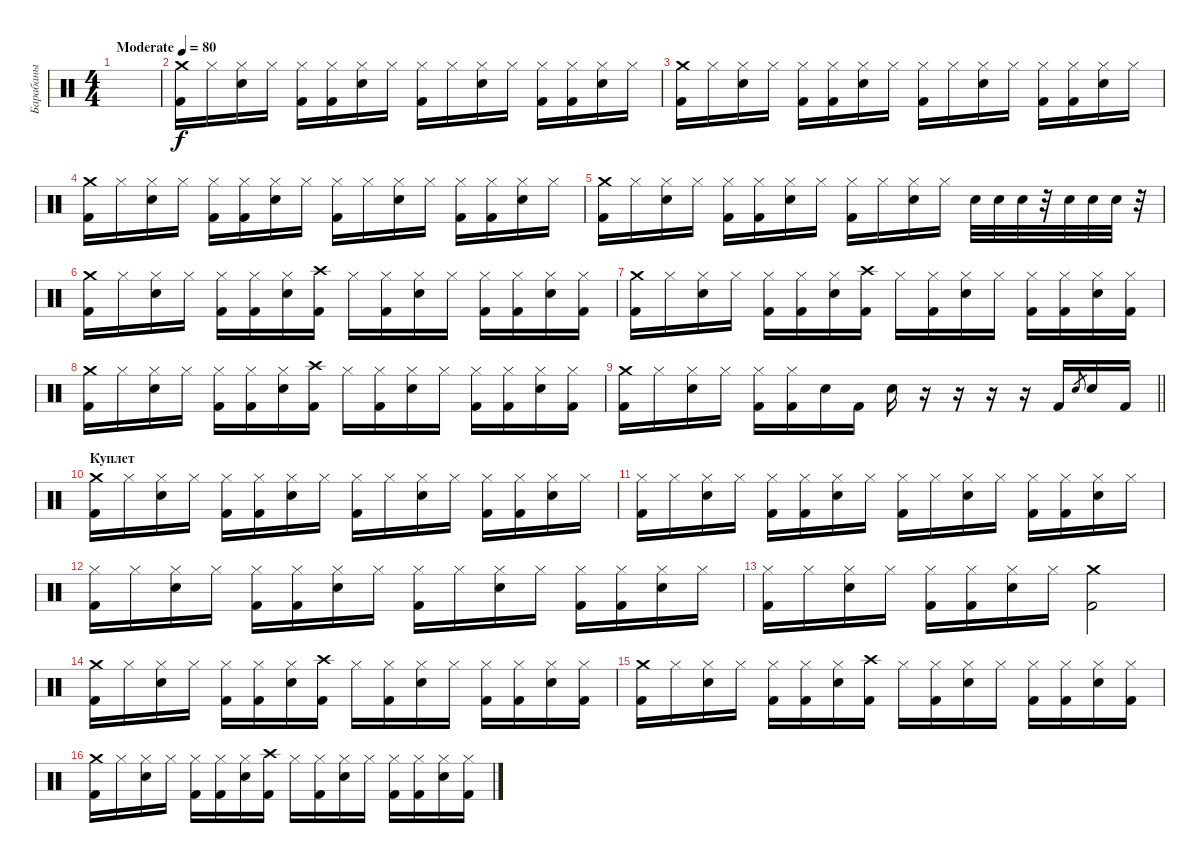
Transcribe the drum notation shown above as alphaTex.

\track ("Барабаны" "Барабаны") {instrument percussion}
\staff {score}
\articulation defaults
\ts (4 4)
\tempo (80 "Moderate")
\clef neutral
\ks c
|
("Crash medium (hit)" "Kick (hit) 2").16 "Hi-Hat (closed)".16 ("Hi-Hat (closed)" "Snare (hit) 2").16 "Hi-Hat (closed)".16 ("Hi-Hat (closed)" "Kick (hit) 2").16 ("Hi-Hat (closed)" "Kick (hit) 2").16 ("Hi-Hat (closed)" "Snare (hit) 2").16 "Hi-Hat (closed)".16 ("Hi-Hat (closed)" "Kick (hit) 2").16 "Hi-Hat (closed)".16 ("Hi-Hat (closed)" "Snare (hit) 2").16 "Hi-Hat (closed)".16 ("Hi-Hat (closed)" "Kick (hit) 2").16 ("Hi-Hat (closed)" "Kick (hit) 2").16 ("Hi-Hat (closed)" "Snare (hit) 2").16 "Hi-Hat (closed)".16 |
("Crash medium (hit)" "Kick (hit) 2").16 "Hi-Hat (closed)".16 ("Hi-Hat (closed)" "Snare (hit) 2").16 "Hi-Hat (closed)".16 ("Hi-Hat (closed)" "Kick (hit) 2").16 ("Hi-Hat (closed)" "Kick (hit) 2").16 ("Hi-Hat (closed)" "Snare (hit) 2").16 "Hi-Hat (closed)".16 ("Hi-Hat (closed)" "Kick (hit) 2").16 "Hi-Hat (closed)".16 ("Hi-Hat (closed)" "Snare (hit) 2").16 "Hi-Hat (closed)".16 ("Hi-Hat (closed)" "Kick (hit) 2").16 ("Hi-Hat (closed)" "Kick (hit) 2").16 ("Hi-Hat (closed)" "Snare (hit) 2").16 "Hi-Hat (closed)".16 |
("Crash medium (hit)" "Kick (hit) 2").16 "Hi-Hat (closed)".16 ("Hi-Hat (closed)" "Snare (hit) 2").16 "Hi-Hat (closed)".16 ("Hi-Hat (closed)" "Kick (hit) 2").16 ("Hi-Hat (closed)" "Kick (hit) 2").16 ("Hi-Hat (closed)" "Snare (hit) 2").16 "Hi-Hat (closed)".16 ("Hi-Hat (closed)" "Kick (hit) 2").16 "Hi-Hat (closed)".16 ("Hi-Hat (closed)" "Snare (hit) 2").16 "Hi-Hat (closed)".16 ("Hi-Hat (closed)" "Kick (hit) 2").16 ("Hi-Hat (closed)" "Kick (hit) 2").16 ("Hi-Hat (closed)" "Snare (hit) 2").16 "Hi-Hat (closed)".16 |
("Crash medium (hit)" "Kick (hit) 2").16 "Hi-Hat (closed)".16 ("Hi-Hat (closed)" "Snare (hit) 2").16 "Hi-Hat (closed)".16 ("Hi-Hat (closed)" "Kick (hit) 2").16 ("Hi-Hat (closed)" "Kick (hit) 2").16 ("Hi-Hat (closed)" "Snare (hit) 2").16 "Hi-Hat (closed)".16 ("Hi-Hat (closed)" "Kick (hit) 2").16 "Hi-Hat (closed)".16 ("Hi-Hat (closed)" "Snare (hit) 2").16 "Hi-Hat (closed)".16 "Snare (hit) 2".32 "Snare (hit) 2".32 "Snare (hit) 2".32 r.32 "Snare (hit) 2".32 "Snare (hit) 2".32 "Snare (hit) 2".32 r.32 |
("Crash medium (hit)" "Kick (hit) 2").16 "Hi-Hat (closed)".16 ("Hi-Hat (closed)" "Snare (hit) 2").16 "Hi-Hat (closed)".16 ("Hi-Hat (closed)" "Kick (hit) 2").16 ("Hi-Hat (closed)" "Kick (hit) 2").16 ("Hi-Hat (closed)" "Snare (hit) 2").16 ("Crash high (hit)" "Kick (hit) 2").16 "Hi-Hat (closed)".16 ("Hi-Hat (closed)" "Kick (hit) 2").16 ("Hi-Hat (closed)" "Snare (hit) 2").16 "Hi-Hat (closed)".16 ("Hi-Hat (closed)" "Kick (hit) 2").16 ("Hi-Hat (closed)" "Kick (hit) 2").16 ("Hi-Hat (closed)" "Snare (hit) 2").16 ("Hi-Hat (closed)" "Kick (hit) 2").16 |
("Crash medium (hit)" "Kick (hit) 2").16 "Hi-Hat (closed)".16 ("Hi-Hat (closed)" "Snare (hit) 2").16 "Hi-Hat (closed)".16 ("Hi-Hat (closed)" "Kick (hit) 2").16 ("Hi-Hat (closed)" "Kick (hit) 2").16 ("Hi-Hat (closed)" "Snare (hit) 2").16 ("Crash high (hit)" "Kick (hit) 2").16 "Hi-Hat (closed)".16 ("Hi-Hat (closed)" "Kick (hit) 2").16 ("Hi-Hat (closed)" "Snare (hit) 2").16 "Hi-Hat (closed)".16 ("Hi-Hat (closed)" "Kick (hit) 2").16 ("Hi-Hat (closed)" "Kick (hit) 2").16 ("Hi-Hat (closed)" "Snare (hit) 2").16 ("Hi-Hat (closed)" "Kick (hit) 2").16 |
("Crash medium (hit)" "Kick (hit) 2").16 "Hi-Hat (closed)".16 ("Hi-Hat (closed)" "Snare (hit) 2").16 "Hi-Hat (closed)".16 ("Hi-Hat (closed)" "Kick (hit) 2").16 ("Hi-Hat (closed)" "Kick (hit) 2").16 ("Hi-Hat (closed)" "Snare (hit) 2").16 ("Crash high (hit)" "Kick (hit) 2").16 "Hi-Hat (closed)".16 ("Hi-Hat (closed)" "Kick (hit) 2").16 ("Hi-Hat (closed)" "Snare (hit) 2").16 "Hi-Hat (closed)".16 ("Hi-Hat (closed)" "Kick (hit) 2").16 ("Hi-Hat (closed)" "Kick (hit) 2").16 ("Hi-Hat (closed)" "Snare (hit) 2").16 ("Hi-Hat (closed)" "Kick (hit) 2").16 |
\barLineRight lightlight
("Crash medium (hit)" "Kick (hit) 2").16 "Hi-Hat (closed)".16 ("Hi-Hat (closed)" "Snare (hit) 2").16 "Hi-Hat (closed)".16 ("Hi-Hat (closed)" "Kick (hit) 2").16 ("Hi-Hat (closed)" "Kick (hit) 2").16 "Snare (hit) 2".16 "Kick (hit) 2".16 "Snare (hit) 2".16 r.16 r.16 r.16 r.16 "Kick (hit) 2".16 "Electric Snare (hit)".8{gr} "Snare (hit) 2".16 "Kick (hit) 2".16 |
\section ("" "Куплет")
("Crash medium (hit)" "Kick (hit) 2").16 "Hi-Hat (closed)".16 ("Hi-Hat (closed)" "Snare (hit) 2").16 "Hi-Hat (closed)".16 ("Hi-Hat (closed)" "Kick (hit) 2").16 ("Hi-Hat (closed)" "Kick (hit) 2").16 ("Hi-Hat (closed)" "Snare (hit) 2").16 "Hi-Hat (closed)".16 ("Hi-Hat (closed)" "Kick (hit) 2").16 "Hi-Hat (closed)".16 ("Hi-Hat (closed)" "Snare (hit) 2").16 "Hi-Hat (closed)".16 ("Hi-Hat (closed)" "Kick (hit) 2").16 ("Hi-Hat (closed)" "Kick (hit) 2").16 ("Hi-Hat (closed)" "Snare (hit) 2").16 "Hi-Hat (closed)".16 |
("Hi-Hat (closed)" "Kick (hit) 2").16 "Hi-Hat (closed)".16 ("Hi-Hat (closed)" "Snare (hit) 2").16 "Hi-Hat (closed)".16 ("Hi-Hat (closed)" "Kick (hit) 2").16 ("Hi-Hat (closed)" "Kick (hit) 2").16 ("Hi-Hat (closed)" "Snare (hit) 2").16 "Hi-Hat (closed)".16 ("Hi-Hat (closed)" "Kick (hit) 2").16 "Hi-Hat (closed)".16 ("Hi-Hat (closed)" "Snare (hit) 2").16 "Hi-Hat (closed)".16 ("Hi-Hat (closed)" "Kick (hit) 2").16 ("Hi-Hat (closed)" "Kick (hit) 2").16 ("Hi-Hat (closed)" "Snare (hit) 2").16 "Hi-Hat (closed)".16 |
("Hi-Hat (closed)" "Kick (hit) 2").16 "Hi-Hat (closed)".16 ("Hi-Hat (closed)" "Snare (hit) 2").16 "Hi-Hat (closed)".16 ("Hi-Hat (closed)" "Kick (hit) 2").16 ("Hi-Hat (closed)" "Kick (hit) 2").16 ("Hi-Hat (closed)" "Snare (hit) 2").16 "Hi-Hat (closed)".16 ("Hi-Hat (closed)" "Kick (hit) 2").16 "Hi-Hat (closed)".16 ("Hi-Hat (closed)" "Snare (hit) 2").16 "Hi-Hat (closed)".16 ("Hi-Hat (closed)" "Kick (hit) 2").16 ("Hi-Hat (closed)" "Kick (hit) 2").16 ("Hi-Hat (closed)" "Snare (hit) 2").16 "Hi-Hat (closed)".16 |
("Hi-Hat (closed)" "Kick (hit) 2").16 "Hi-Hat (closed)".16 ("Hi-Hat (closed)" "Snare (hit) 2").16 "Hi-Hat (closed)".16 ("Hi-Hat (closed)" "Kick (hit) 2").16 ("Hi-Hat (closed)" "Kick (hit) 2").16 ("Hi-Hat (closed)" "Snare (hit) 2").16 "Hi-Hat (closed)".16 ("Crash medium (hit)" "Kick (hit) 2").2 |
("Crash medium (hit)" "Kick (hit) 2").16 "Hi-Hat (closed)".16 ("Hi-Hat (closed)" "Snare (hit) 2").16 "Hi-Hat (closed)".16 ("Hi-Hat (closed)" "Kick (hit) 2").16 ("Hi-Hat (closed)" "Kick (hit) 2").16 ("Hi-Hat (closed)" "Snare (hit) 2").16 ("Crash high (hit)" "Kick (hit) 2").16 "Hi-Hat (closed)".16 ("Hi-Hat (closed)" "Kick (hit) 2").16 ("Hi-Hat (closed)" "Snare (hit) 2").16 "Hi-Hat (closed)".16 ("Hi-Hat (closed)" "Kick (hit) 2").16 ("Hi-Hat (closed)" "Kick (hit) 2").16 ("Hi-Hat (closed)" "Snare (hit) 2").16 ("Hi-Hat (closed)" "Kick (hit) 2").16 |
("Crash medium (hit)" "Kick (hit) 2").16 "Hi-Hat (closed)".16 ("Hi-Hat (closed)" "Snare (hit) 2").16 "Hi-Hat (closed)".16 ("Hi-Hat (closed)" "Kick (hit) 2").16 ("Hi-Hat (closed)" "Kick (hit) 2").16 ("Hi-Hat (closed)" "Snare (hit) 2").16 ("Crash high (hit)" "Kick (hit) 2").16 "Hi-Hat (closed)".16 ("Hi-Hat (closed)" "Kick (hit) 2").16 ("Hi-Hat (closed)" "Snare (hit) 2").16 "Hi-Hat (closed)".16 ("Hi-Hat (closed)" "Kick (hit) 2").16 ("Hi-Hat (closed)" "Kick (hit) 2").16 ("Hi-Hat (closed)" "Snare (hit) 2").16 ("Hi-Hat (closed)" "Kick (hit) 2").16 |
("Crash medium (hit)" "Kick (hit) 2").16 "Hi-Hat (closed)".16 ("Hi-Hat (closed)" "Snare (hit) 2").16 "Hi-Hat (closed)".16 ("Hi-Hat (closed)" "Kick (hit) 2").16 ("Hi-Hat (closed)" "Kick (hit) 2").16 ("Hi-Hat (closed)" "Snare (hit) 2").16 ("Crash high (hit)" "Kick (hit) 2").16 "Hi-Hat (closed)".16 ("Hi-Hat (closed)" "Kick (hit) 2").16 ("Hi-Hat (closed)" "Snare (hit) 2").16 "Hi-Hat (closed)".16 ("Hi-Hat (closed)" "Kick (hit) 2").16 ("Hi-Hat (closed)" "Kick (hit) 2").16 ("Hi-Hat (closed)" "Snare (hit) 2").16 ("Hi-Hat (closed)" "Kick (hit) 2").16
